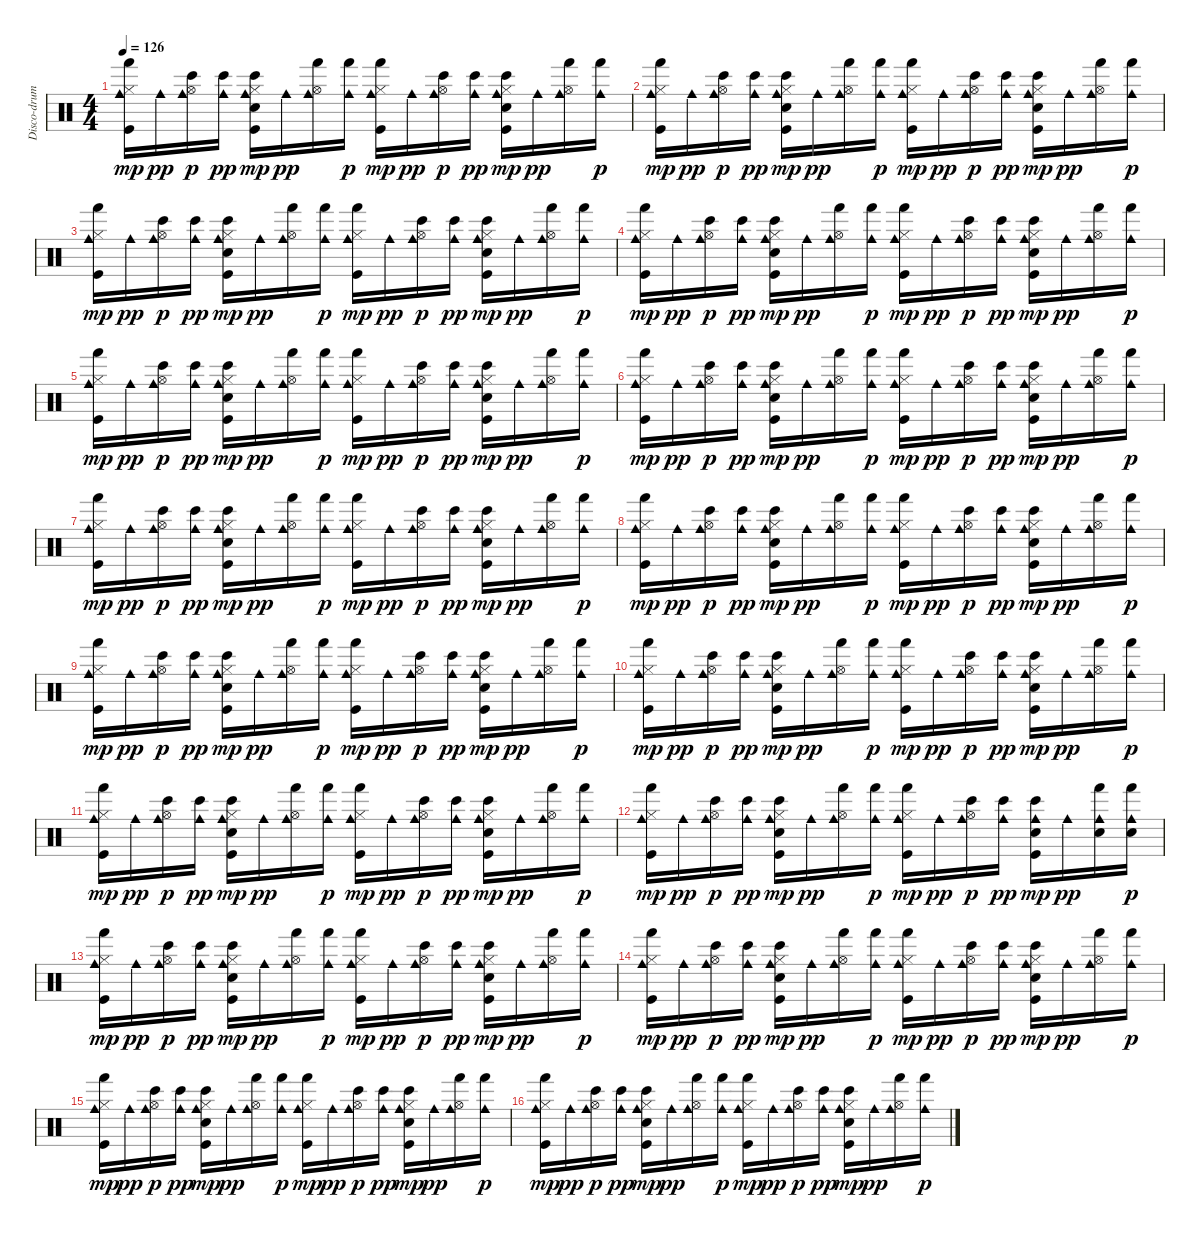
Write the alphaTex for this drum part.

\track ("Disco-drums !" "Disco-drum") {instrument percussion}
\staff {score}
\articulation defaults
\ts (4 4)
\tempo 126
\clef neutral
\ks c
("Hi-Hat (closed)" "Kick (hit)" "Cowbell medium (hit)" "Hand (hit)").16{dy mp} "Cowbell medium (hit)".16{dy pp} ("Hi-Hat (open)" "Cowbell medium (hit)" "Bongo High (hit)").16{dy p} ("Cowbell medium (hit)" "Bongo High (hit)").16{dy pp} ("Hi-Hat (closed)" "Kick (hit)" "Snare (hit) 2" "Cowbell medium (hit)" "Bongo High (hit)").16{dy mp} "Cowbell medium (hit)".16{dy pp} ("Hi-Hat (open)" "Cowbell medium (hit)" "Hand (hit)").16 ("Cowbell medium (hit)" "Hand (hit)").16{dy p} ("Hi-Hat (closed)" "Kick (hit)" "Cowbell medium (hit)" "Hand (hit)").16{dy mp} "Cowbell medium (hit)".16{dy pp} ("Hi-Hat (open)" "Cowbell medium (hit)" "Bongo High (hit)").16{dy p} ("Cowbell medium (hit)" "Bongo High (hit)").16{dy pp} ("Hi-Hat (closed)" "Kick (hit)" "Snare (hit) 2" "Cowbell medium (hit)" "Bongo High (hit)").16{dy mp} "Cowbell medium (hit)".16{dy pp} ("Hi-Hat (open)" "Cowbell medium (hit)" "Hand (hit)").16 ("Cowbell medium (hit)" "Hand (hit)").16{dy p} |
("Hi-Hat (closed)" "Kick (hit)" "Cowbell medium (hit)" "Hand (hit)").16{dy mp} "Cowbell medium (hit)".16{dy pp} ("Hi-Hat (open)" "Cowbell medium (hit)" "Bongo High (hit)").16{dy p} ("Cowbell medium (hit)" "Bongo High (hit)").16{dy pp} ("Hi-Hat (closed)" "Kick (hit)" "Snare (hit) 2" "Cowbell medium (hit)" "Bongo High (hit)").16{dy mp} "Cowbell medium (hit)".16{dy pp} ("Hi-Hat (open)" "Cowbell medium (hit)" "Hand (hit)").16 ("Cowbell medium (hit)" "Hand (hit)").16{dy p} ("Hi-Hat (closed)" "Kick (hit)" "Cowbell medium (hit)" "Hand (hit)").16{dy mp} "Cowbell medium (hit)".16{dy pp} ("Hi-Hat (open)" "Cowbell medium (hit)" "Bongo High (hit)").16{dy p} ("Cowbell medium (hit)" "Bongo High (hit)").16{dy pp} ("Hi-Hat (closed)" "Kick (hit)" "Snare (hit) 2" "Cowbell medium (hit)" "Bongo High (hit)").16{dy mp} "Cowbell medium (hit)".16{dy pp} ("Hi-Hat (open)" "Cowbell medium (hit)" "Hand (hit)").16 ("Cowbell medium (hit)" "Hand (hit)").16{dy p} |
("Hi-Hat (closed)" "Kick (hit)" "Cowbell medium (hit)" "Hand (hit)").16{dy mp} "Cowbell medium (hit)".16{dy pp} ("Hi-Hat (open)" "Cowbell medium (hit)" "Bongo High (hit)").16{dy p} ("Cowbell medium (hit)" "Bongo High (hit)").16{dy pp} ("Hi-Hat (closed)" "Kick (hit)" "Snare (hit) 2" "Cowbell medium (hit)" "Bongo High (hit)").16{dy mp} "Cowbell medium (hit)".16{dy pp} ("Hi-Hat (open)" "Cowbell medium (hit)" "Hand (hit)").16 ("Cowbell medium (hit)" "Hand (hit)").16{dy p} ("Hi-Hat (closed)" "Kick (hit)" "Cowbell medium (hit)" "Hand (hit)").16{dy mp} "Cowbell medium (hit)".16{dy pp} ("Hi-Hat (open)" "Cowbell medium (hit)" "Bongo High (hit)").16{dy p} ("Cowbell medium (hit)" "Bongo High (hit)").16{dy pp} ("Hi-Hat (closed)" "Kick (hit)" "Snare (hit) 2" "Cowbell medium (hit)" "Bongo High (hit)").16{dy mp} "Cowbell medium (hit)".16{dy pp} ("Hi-Hat (open)" "Cowbell medium (hit)" "Hand (hit)").16 ("Cowbell medium (hit)" "Hand (hit)").16{dy p} |
("Hi-Hat (closed)" "Kick (hit)" "Cowbell medium (hit)" "Hand (hit)").16{dy mp} "Cowbell medium (hit)".16{dy pp} ("Hi-Hat (open)" "Cowbell medium (hit)" "Bongo High (hit)").16{dy p} ("Cowbell medium (hit)" "Bongo High (hit)").16{dy pp} ("Hi-Hat (closed)" "Kick (hit)" "Snare (hit) 2" "Cowbell medium (hit)" "Bongo High (hit)").16{dy mp} "Cowbell medium (hit)".16{dy pp} ("Hi-Hat (open)" "Cowbell medium (hit)" "Hand (hit)").16 ("Cowbell medium (hit)" "Hand (hit)").16{dy p} ("Hi-Hat (closed)" "Kick (hit)" "Cowbell medium (hit)" "Hand (hit)").16{dy mp} "Cowbell medium (hit)".16{dy pp} ("Hi-Hat (open)" "Cowbell medium (hit)" "Bongo High (hit)").16{dy p} ("Cowbell medium (hit)" "Bongo High (hit)").16{dy pp} ("Hi-Hat (closed)" "Kick (hit)" "Snare (hit) 2" "Cowbell medium (hit)" "Bongo High (hit)").16{dy mp} "Cowbell medium (hit)".16{dy pp} ("Hi-Hat (open)" "Cowbell medium (hit)" "Hand (hit)").16 ("Cowbell medium (hit)" "Hand (hit)").16{dy p} |
("Hi-Hat (closed)" "Kick (hit)" "Cowbell medium (hit)" "Hand (hit)").16{dy mp} "Cowbell medium (hit)".16{dy pp} ("Hi-Hat (open)" "Cowbell medium (hit)" "Bongo High (hit)").16{dy p} ("Cowbell medium (hit)" "Bongo High (hit)").16{dy pp} ("Hi-Hat (closed)" "Kick (hit)" "Snare (hit) 2" "Cowbell medium (hit)" "Bongo High (hit)").16{dy mp} "Cowbell medium (hit)".16{dy pp} ("Hi-Hat (open)" "Cowbell medium (hit)" "Hand (hit)").16 ("Cowbell medium (hit)" "Hand (hit)").16{dy p} ("Hi-Hat (closed)" "Kick (hit)" "Cowbell medium (hit)" "Hand (hit)").16{dy mp} "Cowbell medium (hit)".16{dy pp} ("Hi-Hat (open)" "Cowbell medium (hit)" "Bongo High (hit)").16{dy p} ("Cowbell medium (hit)" "Bongo High (hit)").16{dy pp} ("Hi-Hat (closed)" "Kick (hit)" "Snare (hit) 2" "Cowbell medium (hit)" "Bongo High (hit)").16{dy mp} "Cowbell medium (hit)".16{dy pp} ("Hi-Hat (open)" "Cowbell medium (hit)" "Hand (hit)").16 ("Cowbell medium (hit)" "Hand (hit)").16{dy p} |
("Hi-Hat (closed)" "Kick (hit)" "Cowbell medium (hit)" "Hand (hit)").16{dy mp} "Cowbell medium (hit)".16{dy pp} ("Hi-Hat (open)" "Cowbell medium (hit)" "Bongo High (hit)").16{dy p} ("Cowbell medium (hit)" "Bongo High (hit)").16{dy pp} ("Hi-Hat (closed)" "Kick (hit)" "Snare (hit) 2" "Cowbell medium (hit)" "Bongo High (hit)").16{dy mp} "Cowbell medium (hit)".16{dy pp} ("Hi-Hat (open)" "Cowbell medium (hit)" "Hand (hit)").16 ("Cowbell medium (hit)" "Hand (hit)").16{dy p} ("Hi-Hat (closed)" "Kick (hit)" "Cowbell medium (hit)" "Hand (hit)").16{dy mp} "Cowbell medium (hit)".16{dy pp} ("Hi-Hat (open)" "Cowbell medium (hit)" "Bongo High (hit)").16{dy p} ("Cowbell medium (hit)" "Bongo High (hit)").16{dy pp} ("Hi-Hat (closed)" "Kick (hit)" "Snare (hit) 2" "Cowbell medium (hit)" "Bongo High (hit)").16{dy mp} "Cowbell medium (hit)".16{dy pp} ("Hi-Hat (open)" "Cowbell medium (hit)" "Hand (hit)").16 ("Cowbell medium (hit)" "Hand (hit)").16{dy p} |
("Hi-Hat (closed)" "Kick (hit)" "Cowbell medium (hit)" "Hand (hit)").16{dy mp} "Cowbell medium (hit)".16{dy pp} ("Hi-Hat (open)" "Cowbell medium (hit)" "Bongo High (hit)").16{dy p} ("Cowbell medium (hit)" "Bongo High (hit)").16{dy pp} ("Hi-Hat (closed)" "Kick (hit)" "Snare (hit) 2" "Cowbell medium (hit)" "Bongo High (hit)").16{dy mp} "Cowbell medium (hit)".16{dy pp} ("Hi-Hat (open)" "Cowbell medium (hit)" "Hand (hit)").16 ("Cowbell medium (hit)" "Hand (hit)").16{dy p} ("Hi-Hat (closed)" "Kick (hit)" "Cowbell medium (hit)" "Hand (hit)").16{dy mp} "Cowbell medium (hit)".16{dy pp} ("Hi-Hat (open)" "Cowbell medium (hit)" "Bongo High (hit)").16{dy p} ("Cowbell medium (hit)" "Bongo High (hit)").16{dy pp} ("Hi-Hat (closed)" "Kick (hit)" "Snare (hit) 2" "Cowbell medium (hit)" "Bongo High (hit)").16{dy mp} "Cowbell medium (hit)".16{dy pp} ("Hi-Hat (open)" "Cowbell medium (hit)" "Hand (hit)").16 ("Cowbell medium (hit)" "Hand (hit)").16{dy p} |
("Hi-Hat (closed)" "Kick (hit)" "Cowbell medium (hit)" "Hand (hit)").16{dy mp} "Cowbell medium (hit)".16{dy pp} ("Hi-Hat (open)" "Cowbell medium (hit)" "Bongo High (hit)").16{dy p} ("Cowbell medium (hit)" "Bongo High (hit)").16{dy pp} ("Hi-Hat (closed)" "Kick (hit)" "Snare (hit) 2" "Cowbell medium (hit)" "Bongo High (hit)").16{dy mp} "Cowbell medium (hit)".16{dy pp} ("Hi-Hat (open)" "Cowbell medium (hit)" "Hand (hit)").16 ("Cowbell medium (hit)" "Hand (hit)").16{dy p} ("Hi-Hat (closed)" "Kick (hit)" "Cowbell medium (hit)" "Hand (hit)").16{dy mp} "Cowbell medium (hit)".16{dy pp} ("Hi-Hat (open)" "Cowbell medium (hit)" "Bongo High (hit)").16{dy p} ("Cowbell medium (hit)" "Bongo High (hit)").16{dy pp} ("Hi-Hat (closed)" "Kick (hit)" "Snare (hit) 2" "Cowbell medium (hit)" "Bongo High (hit)").16{dy mp} "Cowbell medium (hit)".16{dy pp} ("Hi-Hat (open)" "Cowbell medium (hit)" "Hand (hit)").16 ("Cowbell medium (hit)" "Hand (hit)").16{dy p} |
("Hi-Hat (closed)" "Kick (hit)" "Cowbell medium (hit)" "Hand (hit)").16{dy mp} "Cowbell medium (hit)".16{dy pp} ("Hi-Hat (open)" "Cowbell medium (hit)" "Bongo High (hit)").16{dy p} ("Cowbell medium (hit)" "Bongo High (hit)").16{dy pp} ("Hi-Hat (closed)" "Kick (hit)" "Snare (hit) 2" "Cowbell medium (hit)" "Bongo High (hit)").16{dy mp} "Cowbell medium (hit)".16{dy pp} ("Hi-Hat (open)" "Cowbell medium (hit)" "Hand (hit)").16 ("Cowbell medium (hit)" "Hand (hit)").16{dy p} ("Hi-Hat (closed)" "Kick (hit)" "Cowbell medium (hit)" "Hand (hit)").16{dy mp} "Cowbell medium (hit)".16{dy pp} ("Hi-Hat (open)" "Cowbell medium (hit)" "Bongo High (hit)").16{dy p} ("Cowbell medium (hit)" "Bongo High (hit)").16{dy pp} ("Hi-Hat (closed)" "Kick (hit)" "Snare (hit) 2" "Cowbell medium (hit)" "Bongo High (hit)").16{dy mp} "Cowbell medium (hit)".16{dy pp} ("Hi-Hat (open)" "Cowbell medium (hit)" "Hand (hit)").16 ("Cowbell medium (hit)" "Hand (hit)").16{dy p} |
("Hi-Hat (closed)" "Kick (hit)" "Cowbell medium (hit)" "Hand (hit)").16{dy mp} "Cowbell medium (hit)".16{dy pp} ("Hi-Hat (open)" "Cowbell medium (hit)" "Bongo High (hit)").16{dy p} ("Cowbell medium (hit)" "Bongo High (hit)").16{dy pp} ("Hi-Hat (closed)" "Kick (hit)" "Snare (hit) 2" "Cowbell medium (hit)" "Bongo High (hit)").16{dy mp} "Cowbell medium (hit)".16{dy pp} ("Hi-Hat (open)" "Cowbell medium (hit)" "Hand (hit)").16 ("Cowbell medium (hit)" "Hand (hit)").16{dy p} ("Hi-Hat (closed)" "Kick (hit)" "Cowbell medium (hit)" "Hand (hit)").16{dy mp} "Cowbell medium (hit)".16{dy pp} ("Hi-Hat (open)" "Cowbell medium (hit)" "Bongo High (hit)").16{dy p} ("Cowbell medium (hit)" "Bongo High (hit)").16{dy pp} ("Hi-Hat (closed)" "Kick (hit)" "Snare (hit) 2" "Cowbell medium (hit)" "Bongo High (hit)").16{dy mp} "Cowbell medium (hit)".16{dy pp} ("Hi-Hat (open)" "Cowbell medium (hit)" "Hand (hit)").16 ("Cowbell medium (hit)" "Hand (hit)").16{dy p} |
("Hi-Hat (closed)" "Kick (hit)" "Cowbell medium (hit)" "Hand (hit)").16{dy mp} "Cowbell medium (hit)".16{dy pp} ("Hi-Hat (open)" "Cowbell medium (hit)" "Bongo High (hit)").16{dy p} ("Cowbell medium (hit)" "Bongo High (hit)").16{dy pp} ("Hi-Hat (closed)" "Kick (hit)" "Snare (hit) 2" "Cowbell medium (hit)" "Bongo High (hit)").16{dy mp} "Cowbell medium (hit)".16{dy pp} ("Hi-Hat (open)" "Cowbell medium (hit)" "Hand (hit)").16 ("Cowbell medium (hit)" "Hand (hit)").16{dy p} ("Hi-Hat (closed)" "Kick (hit)" "Cowbell medium (hit)" "Hand (hit)").16{dy mp} "Cowbell medium (hit)".16{dy pp} ("Hi-Hat (open)" "Cowbell medium (hit)" "Bongo High (hit)").16{dy p} ("Cowbell medium (hit)" "Bongo High (hit)").16{dy pp} ("Hi-Hat (closed)" "Kick (hit)" "Snare (hit) 2" "Cowbell medium (hit)" "Bongo High (hit)").16{dy mp} "Cowbell medium (hit)".16{dy pp} ("Hi-Hat (open)" "Cowbell medium (hit)" "Hand (hit)").16 ("Cowbell medium (hit)" "Hand (hit)").16{dy p} |
("Hi-Hat (closed)" "Kick (hit)" "Cowbell medium (hit)" "Hand (hit)").16{dy mp} "Cowbell medium (hit)".16{dy pp} ("Hi-Hat (open)" "Cowbell medium (hit)" "Bongo High (hit)").16{dy p} ("Cowbell medium (hit)" "Bongo High (hit)").16{dy pp} ("Hi-Hat (closed)" "Kick (hit)" "Snare (hit) 2" "Cowbell medium (hit)" "Bongo High (hit)").16{dy mp} "Cowbell medium (hit)".16{dy pp} ("Hi-Hat (open)" "Cowbell medium (hit)" "Hand (hit)").16 ("Cowbell medium (hit)" "Hand (hit)").16{dy p} ("Hi-Hat (closed)" "Kick (hit)" "Cowbell medium (hit)" "Hand (hit)").16{dy mp} "Cowbell medium (hit)".16{dy pp} ("Hi-Hat (open)" "Cowbell medium (hit)" "Bongo High (hit)").16{dy p} ("Cowbell medium (hit)" "Bongo High (hit)").16{dy pp} ("Kick (hit)" "Snare (hit) 2" "Cowbell medium (hit)" "Bongo High (hit)").16{dy mp} "Cowbell medium (hit)".16{dy pp} ("Snare (hit) 2" "Cowbell medium (hit)" "Hand (hit)").16 ("Snare (hit) 2" "Cowbell medium (hit)" "Hand (hit)").16{dy p} |
("Hi-Hat (closed)" "Kick (hit)" "Cowbell medium (hit)" "Hand (hit)").16{dy mp} "Cowbell medium (hit)".16{dy pp} ("Hi-Hat (open)" "Cowbell medium (hit)" "Bongo High (hit)").16{dy p} ("Cowbell medium (hit)" "Bongo High (hit)").16{dy pp} ("Hi-Hat (closed)" "Kick (hit)" "Snare (hit) 2" "Cowbell medium (hit)" "Bongo High (hit)").16{dy mp} "Cowbell medium (hit)".16{dy pp} ("Hi-Hat (open)" "Cowbell medium (hit)" "Hand (hit)").16 ("Cowbell medium (hit)" "Hand (hit)").16{dy p} ("Hi-Hat (closed)" "Kick (hit)" "Cowbell medium (hit)" "Hand (hit)").16{dy mp} "Cowbell medium (hit)".16{dy pp} ("Hi-Hat (open)" "Cowbell medium (hit)" "Bongo High (hit)").16{dy p} ("Cowbell medium (hit)" "Bongo High (hit)").16{dy pp} ("Hi-Hat (closed)" "Kick (hit)" "Snare (hit) 2" "Cowbell medium (hit)" "Bongo High (hit)").16{dy mp} "Cowbell medium (hit)".16{dy pp} ("Hi-Hat (open)" "Cowbell medium (hit)" "Hand (hit)").16 ("Cowbell medium (hit)" "Hand (hit)").16{dy p} |
("Hi-Hat (closed)" "Kick (hit)" "Cowbell medium (hit)" "Hand (hit)").16{dy mp} "Cowbell medium (hit)".16{dy pp} ("Hi-Hat (open)" "Cowbell medium (hit)" "Bongo High (hit)").16{dy p} ("Cowbell medium (hit)" "Bongo High (hit)").16{dy pp} ("Hi-Hat (closed)" "Kick (hit)" "Snare (hit) 2" "Cowbell medium (hit)" "Bongo High (hit)").16{dy mp} "Cowbell medium (hit)".16{dy pp} ("Hi-Hat (open)" "Cowbell medium (hit)" "Hand (hit)").16 ("Cowbell medium (hit)" "Hand (hit)").16{dy p} ("Hi-Hat (closed)" "Kick (hit)" "Cowbell medium (hit)" "Hand (hit)").16{dy mp} "Cowbell medium (hit)".16{dy pp} ("Hi-Hat (open)" "Cowbell medium (hit)" "Bongo High (hit)").16{dy p} ("Cowbell medium (hit)" "Bongo High (hit)").16{dy pp} ("Hi-Hat (closed)" "Kick (hit)" "Snare (hit) 2" "Cowbell medium (hit)" "Bongo High (hit)").16{dy mp} "Cowbell medium (hit)".16{dy pp} ("Hi-Hat (open)" "Cowbell medium (hit)" "Hand (hit)").16 ("Cowbell medium (hit)" "Hand (hit)").16{dy p} |
("Hi-Hat (closed)" "Kick (hit)" "Cowbell medium (hit)" "Hand (hit)").16{dy mp} "Cowbell medium (hit)".16{dy pp} ("Hi-Hat (open)" "Cowbell medium (hit)" "Bongo High (hit)").16{dy p} ("Cowbell medium (hit)" "Bongo High (hit)").16{dy pp} ("Hi-Hat (closed)" "Kick (hit)" "Snare (hit) 2" "Cowbell medium (hit)" "Bongo High (hit)").16{dy mp} "Cowbell medium (hit)".16{dy pp} ("Hi-Hat (open)" "Cowbell medium (hit)" "Hand (hit)").16 ("Cowbell medium (hit)" "Hand (hit)").16{dy p} ("Hi-Hat (closed)" "Kick (hit)" "Cowbell medium (hit)" "Hand (hit)").16{dy mp} "Cowbell medium (hit)".16{dy pp} ("Hi-Hat (open)" "Cowbell medium (hit)" "Bongo High (hit)").16{dy p} ("Cowbell medium (hit)" "Bongo High (hit)").16{dy pp} ("Hi-Hat (closed)" "Kick (hit)" "Snare (hit) 2" "Cowbell medium (hit)" "Bongo High (hit)").16{dy mp} "Cowbell medium (hit)".16{dy pp} ("Hi-Hat (open)" "Cowbell medium (hit)" "Hand (hit)").16 ("Cowbell medium (hit)" "Hand (hit)").16{dy p} |
("Hi-Hat (closed)" "Kick (hit)" "Cowbell medium (hit)" "Hand (hit)").16{dy mp} "Cowbell medium (hit)".16{dy pp} ("Hi-Hat (open)" "Cowbell medium (hit)" "Bongo High (hit)").16{dy p} ("Cowbell medium (hit)" "Bongo High (hit)").16{dy pp} ("Hi-Hat (closed)" "Kick (hit)" "Snare (hit) 2" "Cowbell medium (hit)" "Bongo High (hit)").16{dy mp} "Cowbell medium (hit)".16{dy pp} ("Hi-Hat (open)" "Cowbell medium (hit)" "Hand (hit)").16 ("Cowbell medium (hit)" "Hand (hit)").16{dy p} ("Hi-Hat (closed)" "Kick (hit)" "Cowbell medium (hit)" "Hand (hit)").16{dy mp} "Cowbell medium (hit)".16{dy pp} ("Hi-Hat (open)" "Cowbell medium (hit)" "Bongo High (hit)").16{dy p} ("Cowbell medium (hit)" "Bongo High (hit)").16{dy pp} ("Hi-Hat (closed)" "Kick (hit)" "Snare (hit) 2" "Cowbell medium (hit)" "Bongo High (hit)").16{dy mp} "Cowbell medium (hit)".16{dy pp} ("Hi-Hat (open)" "Cowbell medium (hit)" "Hand (hit)").16 ("Cowbell medium (hit)" "Hand (hit)").16{dy p}
